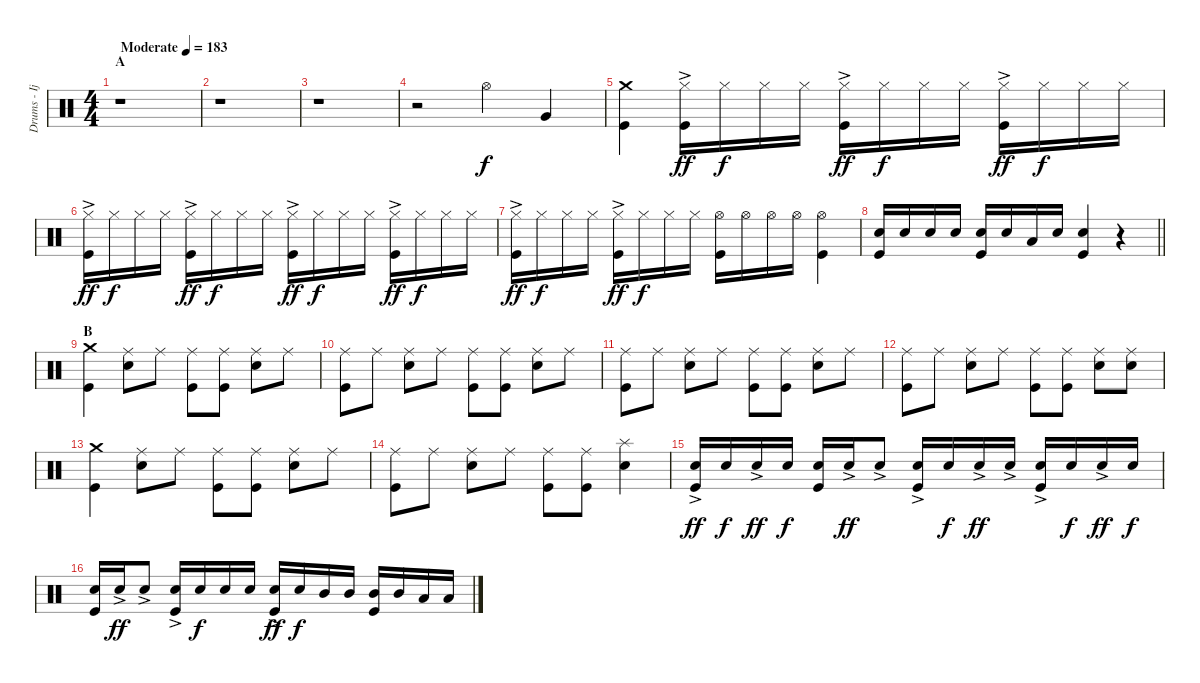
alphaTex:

\track ("Drums - Ijichi" "Drums - Ij") {instrument percussion}
\staff {score}
\articulation defaults
\ts (4 4)
\section ("" "A")
\tempo (183 "Moderate")
\clef neutral
\ks c
r.1{dy f} |
r.1 |
r.1 |
r.2 "Hi-Hat (open)".4 "Very Low Tom (hit)".4 |
("Crash medium (hit)" "Kick (hit)").4 ("Hi-Hat (closed)"{ac} "Kick (hit)").16{dy ff} "Hi-Hat (closed)".16{dy f} "Hi-Hat (closed)".16 "Hi-Hat (closed)".16 ("Hi-Hat (closed)"{ac} "Kick (hit)").16{dy ff} "Hi-Hat (closed)".16{dy f} "Hi-Hat (closed)".16 "Hi-Hat (closed)".16 ("Hi-Hat (closed)"{ac} "Kick (hit)").16{dy ff} "Hi-Hat (closed)".16{dy f} "Hi-Hat (closed)".16 "Hi-Hat (closed)".16 |
("Hi-Hat (closed)"{ac} "Kick (hit)").16{dy ff} "Hi-Hat (closed)".16{dy f} "Hi-Hat (closed)".16 "Hi-Hat (closed)".16 ("Hi-Hat (closed)"{ac} "Kick (hit)").16{dy ff} "Hi-Hat (closed)".16{dy f} "Hi-Hat (closed)".16 "Hi-Hat (closed)".16 ("Hi-Hat (closed)"{ac} "Kick (hit)").16{dy ff} "Hi-Hat (closed)".16{dy f} "Hi-Hat (closed)".16 "Hi-Hat (closed)".16 ("Hi-Hat (closed)"{ac} "Kick (hit)").16{dy ff} "Hi-Hat (closed)".16{dy f} "Hi-Hat (closed)".16 "Hi-Hat (closed)".16 |
("Hi-Hat (closed)"{ac} "Kick (hit)").16{dy ff} "Hi-Hat (closed)".16{dy f} "Hi-Hat (closed)".16 "Hi-Hat (closed)".16 ("Hi-Hat (closed)"{ac} "Kick (hit)").16{dy ff} "Hi-Hat (closed)".16{dy f} "Hi-Hat (closed)".16 "Hi-Hat (closed)".16 ("Hi-Hat (open)" "Kick (hit)").16 "Hi-Hat (open)".16 "Hi-Hat (open)".16 "Hi-Hat (open)".16 ("Hi-Hat (open)" "Kick (hit)").4 |
\barLineRight lightlight
("Electric Snare (hit)" "Kick (hit)").16 "Electric Snare (hit)".16 "Electric Snare (hit)".16 "Electric Snare (hit)".16 ("Electric Snare (hit)" "Kick (hit)").16 "Electric Snare (hit)".16 "Low Tom (hit)".16 "Electric Snare (hit)".16 ("Electric Snare (hit)" "Kick (hit)").4 r.4 |
\section ("" "B")
("Crash medium (hit)" "Kick (hit)").4 ("Ride (middle)" "Electric Snare (hit)").8 "Ride (middle)".8 ("Ride (middle)" "Kick (hit)").8 ("Ride (middle)" "Kick (hit)").8 ("Ride (middle)" "Electric Snare (hit)").8 "Ride (middle)".8 |
("Ride (middle)" "Kick (hit)").8 "Ride (middle)".8 ("Ride (middle)" "Electric Snare (hit)").8 "Ride (middle)".8 ("Ride (middle)" "Kick (hit)").8 ("Ride (middle)" "Kick (hit)").8 ("Ride (middle)" "Electric Snare (hit)").8 "Ride (middle)".8 |
("Ride (middle)" "Kick (hit)").8 "Ride (middle)".8 ("Ride (middle)" "Electric Snare (hit)").8 "Ride (middle)".8 ("Ride (middle)" "Kick (hit)").8 ("Ride (middle)" "Kick (hit)").8 ("Ride (middle)" "Electric Snare (hit)").8 "Ride (middle)".8 |
("Ride (middle)" "Kick (hit)").8 "Ride (middle)".8 ("Ride (middle)" "Electric Snare (hit)").8 "Ride (middle)".8 ("Ride (middle)" "Kick (hit)").8 ("Ride (middle)" "Kick (hit)").8 ("Ride (middle)" "Electric Snare (hit)").8 ("Ride (middle)" "Electric Snare (hit)").8 |
("Crash medium (hit)" "Kick (hit)").4 ("Ride (middle)" "Electric Snare (hit)").8 "Ride (middle)".8 ("Ride (middle)" "Kick (hit)").8 ("Ride (middle)" "Kick (hit)").8 ("Ride (middle)" "Electric Snare (hit)").8 "Ride (middle)".8 |
("Ride (middle)" "Kick (hit)").8 "Ride (middle)".8 ("Ride (middle)" "Electric Snare (hit)").8 "Ride (middle)".8 ("Ride (middle)" "Kick (hit)").8 ("Ride (middle)" "Kick (hit)").8 ("Splash (hit)" "Electric Snare (hit)").4 |
("Electric Snare (hit)"{ac} "Kick (hit)").16{dy ff} "Electric Snare (hit)".16{dy f} "Electric Snare (hit)"{ac}.16{dy ff} "Electric Snare (hit)".16{dy f} ("Electric Snare (hit)" "Kick (hit)").16 "Electric Snare (hit)"{ac}.16{dy ff} "Electric Snare (hit)"{ac}.8 ("Electric Snare (hit)"{ac} "Kick (hit)").16 "Electric Snare (hit)".16{dy f} "Electric Snare (hit)"{ac}.16{dy ff} "Electric Snare (hit)"{ac}.16 ("Electric Snare (hit)"{ac} "Kick (hit)").16 "Electric Snare (hit)".16{dy f} "Electric Snare (hit)"{ac}.16{dy ff} "Electric Snare (hit)".16{dy f} |
("Electric Snare (hit)" "Kick (hit)").16 "Electric Snare (hit)"{ac}.16{dy ff} "Electric Snare (hit)"{ac}.8 ("Electric Snare (hit)"{ac} "Kick (hit)").16 "Electric Snare (hit)".16{dy f} "Electric Snare (hit)".16 "Electric Snare (hit)".16 ("Electric Snare (hit)"{ac} "Kick (hit)").16{dy ff} "Electric Snare (hit)".16{dy f} "Mid Tom (hit)".16 "Mid Tom (hit)".16 ("Mid Tom (hit)" "Kick (hit)").16 "Mid Tom (hit)".16 "Low Tom (hit)".16 "Low Tom (hit)".16
